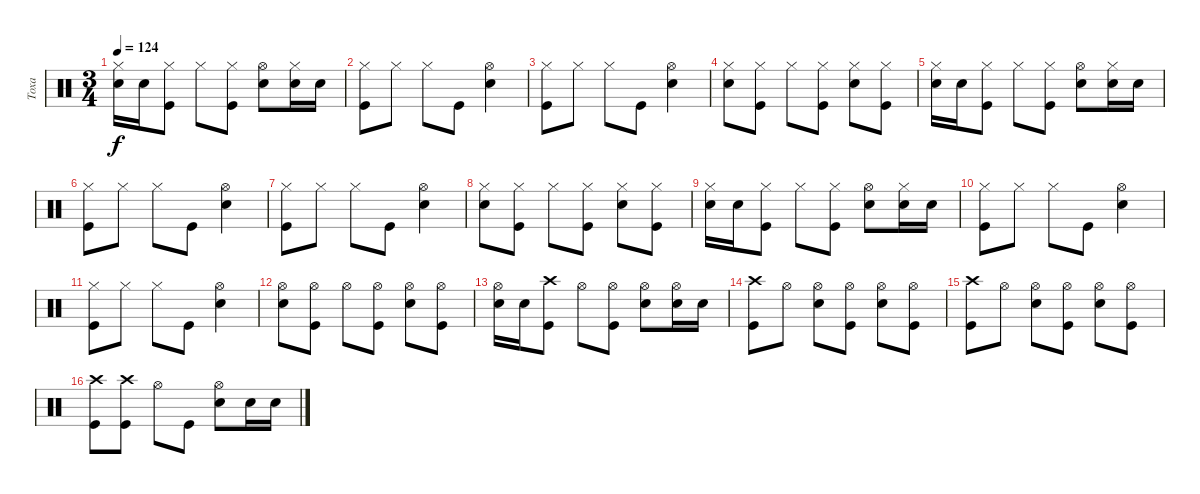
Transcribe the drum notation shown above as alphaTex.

\track ("Тоха" "Тоха") {instrument percussion}
\staff {score}
\articulation defaults
\ts (3 4)
\tempo 124
\clef neutral
\ks c
("Snare (hit) 2" "Hi-Hat (closed)").16{dy f} "Snare (hit) 2".16 ("Kick (hit)" "Hi-Hat (closed)").8 "Hi-Hat (closed)".8 ("Kick (hit)" "Hi-Hat (closed)").8 ("Snare (hit) 2" "Hi-Hat (open)").8 ("Snare (hit) 2" "Hi-Hat (closed)").16 "Snare (hit) 2".16 |
("Kick (hit)" "Hi-Hat (closed)").8 "Hi-Hat (closed)".8 "Hi-Hat (closed)".8 "Kick (hit)".8 ("Snare (hit) 2" "Hi-Hat (open)").4 |
("Kick (hit)" "Hi-Hat (closed)").8 "Hi-Hat (closed)".8 "Hi-Hat (closed)".8 "Kick (hit)".8 ("Snare (hit) 2" "Hi-Hat (open)").4 |
("Snare (hit) 2" "Hi-Hat (closed)").8 ("Kick (hit)" "Hi-Hat (closed)").8 "Hi-Hat (closed)".8 ("Kick (hit)" "Hi-Hat (closed)").8 ("Snare (hit) 2" "Hi-Hat (closed)").8 ("Kick (hit)" "Hi-Hat (closed)").8 |
("Snare (hit) 2" "Hi-Hat (closed)").16 "Snare (hit) 2".16 ("Kick (hit)" "Hi-Hat (closed)").8 "Hi-Hat (closed)".8 ("Kick (hit)" "Hi-Hat (closed)").8 ("Snare (hit) 2" "Hi-Hat (open)").8 ("Snare (hit) 2" "Hi-Hat (closed)").16 "Snare (hit) 2".16 |
("Kick (hit)" "Hi-Hat (closed)").8 "Hi-Hat (closed)".8 "Hi-Hat (closed)".8 "Kick (hit)".8 ("Snare (hit) 2" "Hi-Hat (open)").4 |
("Kick (hit)" "Hi-Hat (closed)").8 "Hi-Hat (closed)".8 "Hi-Hat (closed)".8 "Kick (hit)".8 ("Snare (hit) 2" "Hi-Hat (open)").4 |
("Snare (hit) 2" "Hi-Hat (closed)").8 ("Kick (hit)" "Hi-Hat (closed)").8 "Hi-Hat (closed)".8 ("Kick (hit)" "Hi-Hat (closed)").8 ("Snare (hit) 2" "Hi-Hat (closed)").8 ("Kick (hit)" "Hi-Hat (closed)").8 |
("Snare (hit) 2" "Hi-Hat (closed)").16 "Snare (hit) 2".16 ("Kick (hit)" "Hi-Hat (closed)").8 "Hi-Hat (closed)".8 ("Kick (hit)" "Hi-Hat (closed)").8 ("Snare (hit) 2" "Hi-Hat (open)").8 ("Snare (hit) 2" "Hi-Hat (closed)").16 "Snare (hit) 2".16 |
("Kick (hit)" "Hi-Hat (closed)").8 "Hi-Hat (closed)".8 "Hi-Hat (closed)".8 "Kick (hit)".8 ("Snare (hit) 2" "Hi-Hat (open)").4 |
("Kick (hit)" "Hi-Hat (closed)").8 "Hi-Hat (closed)".8 "Hi-Hat (closed)".8 "Kick (hit)".8 ("Snare (hit) 2" "Hi-Hat (open)").4 |
("Snare (hit) 2" "Hi-Hat (open)").8 ("Kick (hit)" "Hi-Hat (open)").8 "Hi-Hat (open)".8 ("Kick (hit)" "Hi-Hat (open)").8 ("Snare (hit) 2" "Hi-Hat (open)").8 ("Kick (hit)" "Hi-Hat (open)").8 |
("Snare (hit) 2" "Hi-Hat (open)").16 "Snare (hit) 2".16 ("Kick (hit)" "Crash high (hit)").8 "Hi-Hat (open)".8 ("Kick (hit)" "Hi-Hat (open)").8 ("Snare (hit) 2" "Hi-Hat (open)").8 ("Snare (hit) 2" "Hi-Hat (open)").16 "Snare (hit) 2".16 |
("Kick (hit)" "Crash high (hit)").8 "Hi-Hat (open)".8 ("Snare (hit) 2" "Hi-Hat (open)").8 ("Kick (hit)" "Hi-Hat (open)").8 ("Snare (hit) 2" "Hi-Hat (open)").8 ("Kick (hit)" "Hi-Hat (open)").8 |
("Kick (hit)" "Crash high (hit)").8 "Hi-Hat (open)".8 ("Snare (hit) 2" "Hi-Hat (open)").8 ("Kick (hit)" "Hi-Hat (open)").8 ("Snare (hit) 2" "Hi-Hat (open)").8 ("Kick (hit)" "Hi-Hat (open)").8 |
("Kick (hit)" "Crash high (hit)").8 ("Kick (hit)" "Crash high (hit)").8 "Hi-Hat (open)".8 "Kick (hit)".8 ("Snare (hit) 2" "Hi-Hat (open)").8 "Snare (hit) 2".16 "Snare (hit) 2".16
